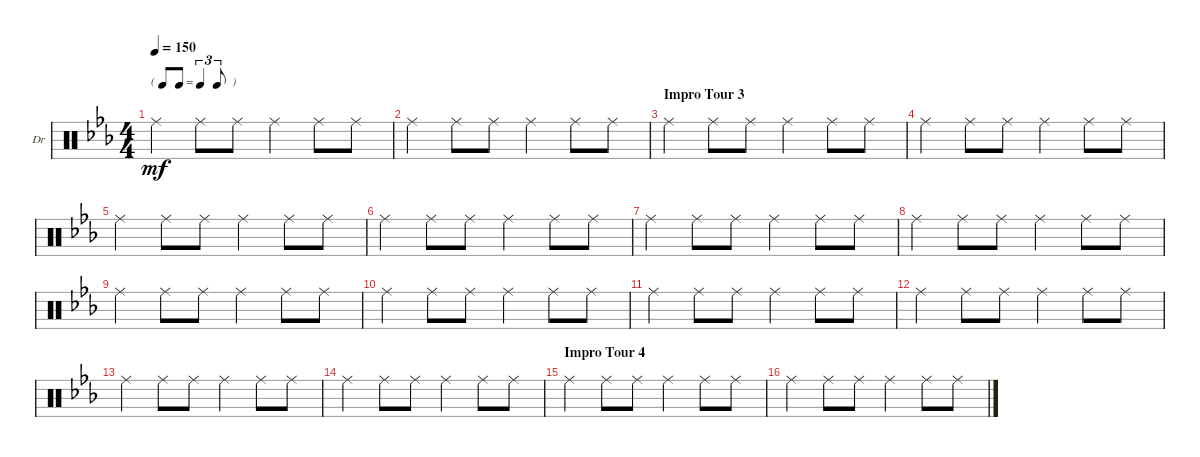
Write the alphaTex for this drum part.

\defaultSystemsLayout 4
\bracketExtendMode nobrackets
\firstSystemTrackNameOrientation horizontal
\otherSystemsTrackNameOrientation horizontal
\chordDiagramsInScore
\track ("Drums" "Dr") {instrument percussion}
\staff {score}
\articulation defaults
\ts (4 4)
\tf triplet8th
\tempo 150
\clef neutral
\ks cminor "Ride (middle)".4{dy mf} "Ride (middle)".8 "Ride (middle)".8 "Ride (middle)".4 "Ride (middle)".8 "Ride (middle)".8
|
"Ride (middle)".4 "Ride (middle)".8 "Ride (middle)".8 "Ride (middle)".4 "Ride (middle)".8 "Ride (middle)".8 |
\section ("" "Impro Tour 3")
"Ride (middle)".4 "Ride (middle)".8 "Ride (middle)".8 "Ride (middle)".4 "Ride (middle)".8 "Ride (middle)".8 |
"Ride (middle)".4 "Ride (middle)".8 "Ride (middle)".8 "Ride (middle)".4 "Ride (middle)".8 "Ride (middle)".8 |
"Ride (middle)".4 "Ride (middle)".8 "Ride (middle)".8 "Ride (middle)".4 "Ride (middle)".8 "Ride (middle)".8 |
"Ride (middle)".4 "Ride (middle)".8 "Ride (middle)".8 "Ride (middle)".4 "Ride (middle)".8 "Ride (middle)".8 |
"Ride (middle)".4 "Ride (middle)".8 "Ride (middle)".8 "Ride (middle)".4 "Ride (middle)".8 "Ride (middle)".8 |
"Ride (middle)".4 "Ride (middle)".8 "Ride (middle)".8 "Ride (middle)".4 "Ride (middle)".8 "Ride (middle)".8 |
"Ride (middle)".4 "Ride (middle)".8 "Ride (middle)".8 "Ride (middle)".4 "Ride (middle)".8 "Ride (middle)".8 |
"Ride (middle)".4 "Ride (middle)".8 "Ride (middle)".8 "Ride (middle)".4 "Ride (middle)".8 "Ride (middle)".8 |
"Ride (middle)".4 "Ride (middle)".8 "Ride (middle)".8 "Ride (middle)".4 "Ride (middle)".8 "Ride (middle)".8 |
"Ride (middle)".4 "Ride (middle)".8 "Ride (middle)".8 "Ride (middle)".4 "Ride (middle)".8 "Ride (middle)".8 |
"Ride (middle)".4 "Ride (middle)".8 "Ride (middle)".8 "Ride (middle)".4 "Ride (middle)".8 "Ride (middle)".8 |
"Ride (middle)".4 "Ride (middle)".8 "Ride (middle)".8 "Ride (middle)".4 "Ride (middle)".8 "Ride (middle)".8 |
\section ("" "Impro Tour 4")
"Ride (middle)".4 "Ride (middle)".8 "Ride (middle)".8 "Ride (middle)".4 "Ride (middle)".8 "Ride (middle)".8 |
"Ride (middle)".4 "Ride (middle)".8 "Ride (middle)".8 "Ride (middle)".4 "Ride (middle)".8 "Ride (middle)".8
